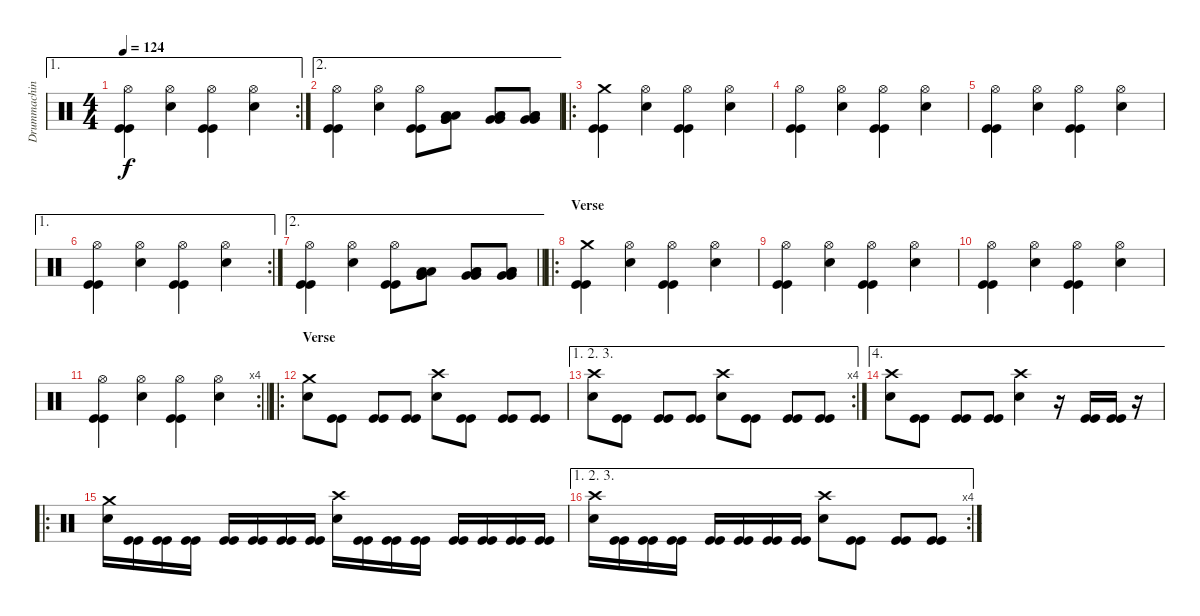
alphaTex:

\track ("Drummachine" "Drummachin") {instrument percussion}
\staff {score}
\articulation defaults
\ae 1
\rc 2
\ts (4 4)
\tempo 124
\clef neutral
\ks c
("Hi-Hat (open)" "Kick (hit)" "Kick (hit)").4{dy f} ("Hi-Hat (open)" "Snare (hit) 2").4 ("Hi-Hat (open)" "Kick (hit)" "Kick (hit)").4 ("Hi-Hat (open)" "Snare (hit) 2").4 |
\ae 2
("Hi-Hat (open)" "Kick (hit)" "Kick (hit)").4 ("Hi-Hat (open)" "Snare (hit) 2").4 ("Hi-Hat (open)" "Kick (hit)" "Kick (hit)").8 ("Very Low Tom (hit)" "Very Low Tom (hit)" "Low Tom (hit)" "Low Tom (hit)").8 ("Very Low Tom (hit)" "Very Low Tom (hit)" "Low Tom (hit)" "Low Tom (hit)").8 ("Low Floor Tom (hit)" "Low Floor Tom (hit)" "Very Low Tom (hit)" "Very Low Tom (hit)").8 |
\ro
("Crash medium (hit)" "Kick (hit)" "Kick (hit)").4 ("Hi-Hat (open)" "Snare (hit) 2").4 ("Hi-Hat (open)" "Kick (hit)" "Kick (hit)").4 ("Hi-Hat (open)" "Snare (hit) 2").4 |
("Hi-Hat (open)" "Kick (hit)" "Kick (hit)").4 ("Hi-Hat (open)" "Snare (hit) 2").4 ("Hi-Hat (open)" "Kick (hit)" "Kick (hit)").4 ("Hi-Hat (open)" "Snare (hit) 2").4 |
("Hi-Hat (open)" "Kick (hit)" "Kick (hit)").4 ("Hi-Hat (open)" "Snare (hit) 2").4 ("Hi-Hat (open)" "Kick (hit)" "Kick (hit)").4 ("Hi-Hat (open)" "Snare (hit) 2").4 |
\ae 1
\rc 2
("Hi-Hat (open)" "Kick (hit)" "Kick (hit)").4 ("Hi-Hat (open)" "Snare (hit) 2").4 ("Hi-Hat (open)" "Kick (hit)" "Kick (hit)").4 ("Hi-Hat (open)" "Snare (hit) 2").4 |
\ae 2
\barLineRight lightlight
("Hi-Hat (open)" "Kick (hit)" "Kick (hit)").4 ("Hi-Hat (open)" "Snare (hit) 2").4 ("Hi-Hat (open)" "Kick (hit)" "Kick (hit)").8 ("Very Low Tom (hit)" "Very Low Tom (hit)" "Low Tom (hit)" "Low Tom (hit)").8 ("Very Low Tom (hit)" "Very Low Tom (hit)" "Low Tom (hit)" "Low Tom (hit)").8 ("Low Floor Tom (hit)" "Low Floor Tom (hit)" "Very Low Tom (hit)" "Very Low Tom (hit)").8 |
\ro
\section ("" "Verse")
("Crash medium (hit)" "Kick (hit)" "Kick (hit)").4 ("Hi-Hat (open)" "Snare (hit) 2").4 ("Hi-Hat (open)" "Kick (hit)" "Kick (hit)").4 ("Hi-Hat (open)" "Snare (hit) 2").4 |
("Hi-Hat (open)" "Kick (hit)" "Kick (hit)").4 ("Hi-Hat (open)" "Snare (hit) 2").4 ("Hi-Hat (open)" "Kick (hit)" "Kick (hit)").4 ("Hi-Hat (open)" "Snare (hit) 2").4 |
("Hi-Hat (open)" "Kick (hit)" "Kick (hit)").4 ("Hi-Hat (open)" "Snare (hit) 2").4 ("Hi-Hat (open)" "Kick (hit)" "Kick (hit)").4 ("Hi-Hat (open)" "Snare (hit) 2").4 |
\rc 4
\barLineRight lightlight
("Hi-Hat (open)" "Kick (hit)" "Kick (hit)").4 ("Hi-Hat (open)" "Snare (hit) 2").4 ("Hi-Hat (open)" "Kick (hit)" "Kick (hit)").4 ("Hi-Hat (open)" "Snare (hit) 2").4 |
\ro
\section ("" "Verse")
("Crash medium (hit)" "Snare (hit) 2").8 ("Kick (hit)" "Kick (hit)").8 ("Kick (hit)" "Kick (hit)").8 ("Kick (hit)" "Kick (hit)").8 ("Crash high (hit)" "Snare (hit) 2").8 ("Kick (hit)" "Kick (hit)").8 ("Kick (hit)" "Kick (hit)").8 ("Kick (hit)" "Kick (hit)").8 |
\ae (1 2 3)
\rc 4
("Crash high (hit)" "Snare (hit) 2").8 ("Kick (hit)" "Kick (hit)").8 ("Kick (hit)" "Kick (hit)").8 ("Kick (hit)" "Kick (hit)").8 ("Crash high (hit)" "Snare (hit) 2").8 ("Kick (hit)" "Kick (hit)").8 ("Kick (hit)" "Kick (hit)").8 ("Kick (hit)" "Kick (hit)").8 |
\ae 4
("Crash high (hit)" "Snare (hit) 2").8 ("Kick (hit)" "Kick (hit)").8 ("Kick (hit)" "Kick (hit)").8 ("Kick (hit)" "Kick (hit)").8 ("Crash high (hit)" "Snare (hit) 2").4 r.16 ("Kick (hit)" "Kick (hit)").16 ("Kick (hit)" "Kick (hit)").16 r.16 |
\ro
("Crash medium (hit)" "Snare (hit) 2").16 ("Kick (hit)" "Kick (hit)").16 ("Kick (hit)" "Kick (hit)").16 ("Kick (hit)" "Kick (hit)").16 ("Kick (hit)" "Kick (hit)").16 ("Kick (hit)" "Kick (hit)").16 ("Kick (hit)" "Kick (hit)").16 ("Kick (hit)" "Kick (hit)").16 ("Crash high (hit)" "Snare (hit) 2").16 ("Kick (hit)" "Kick (hit)").16 ("Kick (hit)" "Kick (hit)").16 ("Kick (hit)" "Kick (hit)").16 ("Kick (hit)" "Kick (hit)").16 ("Kick (hit)" "Kick (hit)").16 ("Kick (hit)" "Kick (hit)").16 ("Kick (hit)" "Kick (hit)").16 |
\ae (1 2 3)
\rc 4
("Crash high (hit)" "Snare (hit) 2").16 ("Kick (hit)" "Kick (hit)").16 ("Kick (hit)" "Kick (hit)").16 ("Kick (hit)" "Kick (hit)").16 ("Kick (hit)" "Kick (hit)").16 ("Kick (hit)" "Kick (hit)").16 ("Kick (hit)" "Kick (hit)").16 ("Kick (hit)" "Kick (hit)").16 ("Crash high (hit)" "Snare (hit) 2").8 ("Kick (hit)" "Kick (hit)").8 ("Kick (hit)" "Kick (hit)").8 ("Kick (hit)" "Kick (hit)").8
